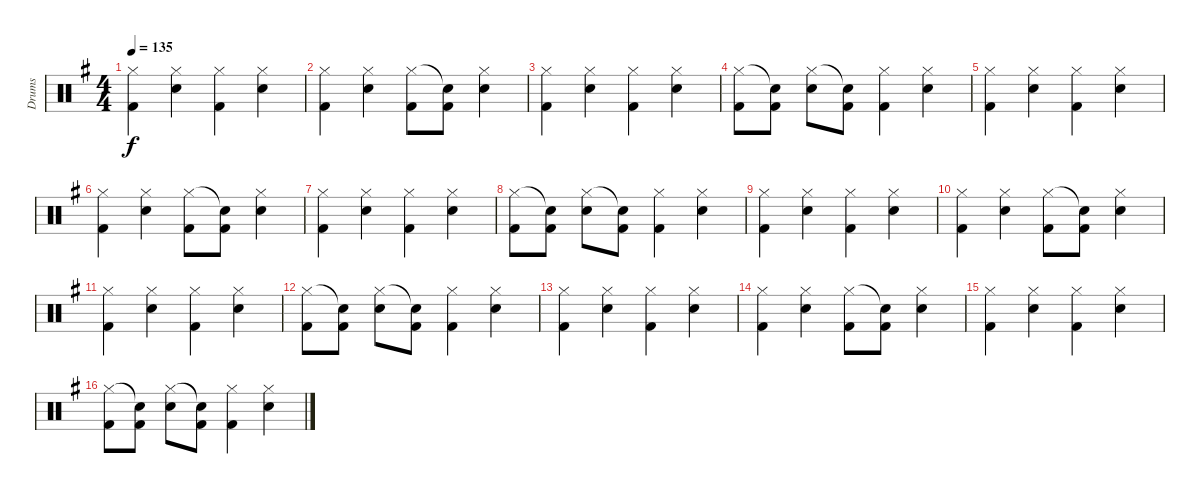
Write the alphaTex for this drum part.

\track ("Drums" "Drums") {instrument percussion}
\staff {score}
\articulation defaults
\ts (4 4)
\tempo 135
\clef neutral
\ks eminor
("Hi-Hat (closed)" "Kick (hit) 2").4{dy f} ("Hi-Hat (closed)" "Snare (hit) 2").4 ("Hi-Hat (closed)" "Kick (hit) 2").4 ("Hi-Hat (closed)" "Snare (hit) 2").4 |
("Hi-Hat (closed)" "Kick (hit) 2").4 ("Hi-Hat (closed)" "Snare (hit) 2").4 ("Hi-Hat (closed)" "Kick (hit) 2").8 ("Snare (hit)"{t} "Kick (hit) 2").8 ("Hi-Hat (closed)" "Snare (hit) 2").4 |
("Hi-Hat (closed)" "Kick (hit) 2").4 ("Hi-Hat (closed)" "Snare (hit) 2").4 ("Hi-Hat (closed)" "Kick (hit) 2").4 ("Hi-Hat (closed)" "Snare (hit) 2").4 |
("Hi-Hat (closed)" "Kick (hit) 2").8 ("Snare (hit)"{t} "Kick (hit) 2").8 ("Hi-Hat (closed)" "Snare (hit) 2").8 ("Snare (hit)"{t} "Kick (hit) 2").8 ("Hi-Hat (closed)" "Kick (hit) 2").4 ("Hi-Hat (closed)" "Snare (hit) 2").4 |
("Hi-Hat (closed)" "Kick (hit) 2").4 ("Hi-Hat (closed)" "Snare (hit) 2").4 ("Hi-Hat (closed)" "Kick (hit) 2").4 ("Hi-Hat (closed)" "Snare (hit) 2").4 |
("Hi-Hat (closed)" "Kick (hit) 2").4 ("Hi-Hat (closed)" "Snare (hit) 2").4 ("Hi-Hat (closed)" "Kick (hit) 2").8 ("Snare (hit)"{t} "Kick (hit) 2").8 ("Hi-Hat (closed)" "Snare (hit) 2").4 |
("Hi-Hat (closed)" "Kick (hit) 2").4 ("Hi-Hat (closed)" "Snare (hit) 2").4 ("Hi-Hat (closed)" "Kick (hit) 2").4 ("Hi-Hat (closed)" "Snare (hit) 2").4 |
("Hi-Hat (closed)" "Kick (hit) 2").8 ("Snare (hit)"{t} "Kick (hit) 2").8 ("Hi-Hat (closed)" "Snare (hit) 2").8 ("Snare (hit)"{t} "Kick (hit) 2").8 ("Hi-Hat (closed)" "Kick (hit) 2").4 ("Hi-Hat (closed)" "Snare (hit) 2").4 |
("Hi-Hat (closed)" "Kick (hit) 2").4 ("Hi-Hat (closed)" "Snare (hit) 2").4 ("Hi-Hat (closed)" "Kick (hit) 2").4 ("Hi-Hat (closed)" "Snare (hit) 2").4 |
("Hi-Hat (closed)" "Kick (hit) 2").4 ("Hi-Hat (closed)" "Snare (hit) 2").4 ("Hi-Hat (closed)" "Kick (hit) 2").8 ("Snare (hit)"{t} "Kick (hit) 2").8 ("Hi-Hat (closed)" "Snare (hit) 2").4 |
("Hi-Hat (closed)" "Kick (hit) 2").4 ("Hi-Hat (closed)" "Snare (hit) 2").4 ("Hi-Hat (closed)" "Kick (hit) 2").4 ("Hi-Hat (closed)" "Snare (hit) 2").4 |
("Hi-Hat (closed)" "Kick (hit) 2").8 ("Snare (hit)"{t} "Kick (hit) 2").8 ("Hi-Hat (closed)" "Snare (hit) 2").8 ("Snare (hit)"{t} "Kick (hit) 2").8 ("Hi-Hat (closed)" "Kick (hit) 2").4 ("Hi-Hat (closed)" "Snare (hit) 2").4 |
("Hi-Hat (closed)" "Kick (hit) 2").4 ("Hi-Hat (closed)" "Snare (hit) 2").4 ("Hi-Hat (closed)" "Kick (hit) 2").4 ("Hi-Hat (closed)" "Snare (hit) 2").4 |
("Hi-Hat (closed)" "Kick (hit) 2").4 ("Hi-Hat (closed)" "Snare (hit) 2").4 ("Hi-Hat (closed)" "Kick (hit) 2").8 ("Snare (hit)"{t} "Kick (hit) 2").8 ("Hi-Hat (closed)" "Snare (hit) 2").4 |
("Hi-Hat (closed)" "Kick (hit) 2").4 ("Hi-Hat (closed)" "Snare (hit) 2").4 ("Hi-Hat (closed)" "Kick (hit) 2").4 ("Hi-Hat (closed)" "Snare (hit) 2").4 |
("Hi-Hat (closed)" "Kick (hit) 2").8 ("Snare (hit)"{t} "Kick (hit) 2").8 ("Hi-Hat (closed)" "Snare (hit) 2").8 ("Snare (hit)"{t} "Kick (hit) 2").8 ("Hi-Hat (closed)" "Kick (hit) 2").4 ("Hi-Hat (closed)" "Snare (hit) 2").4
